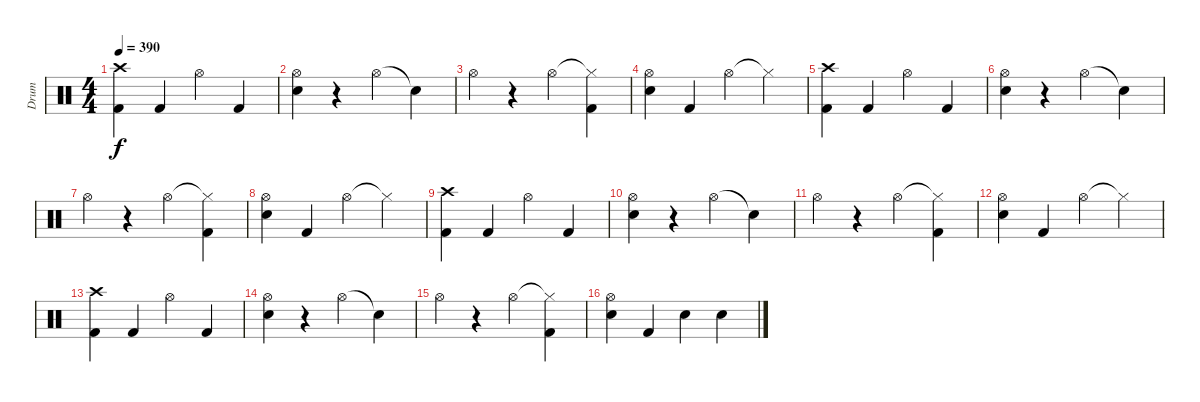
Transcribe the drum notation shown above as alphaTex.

\track ("Drum" "Drum") {instrument percussion}
\staff {score}
\articulation defaults
\ts (4 4)
\tempo 390
\clef neutral
\ks c
("Crash high (hit)" "Kick (hit) 2").4{dy f} "Kick (hit) 2".4 "Hi-Hat (open)".4 "Kick (hit) 2".4 |
("Hi-Hat (open)" "Electric Snare (hit)").4 r.4 "Hi-Hat (open)".4 "Snare (hit)"{t}.4 |
"Hi-Hat (open)".4 r.4 "Hi-Hat (open)".4 ("Hi-Hat (closed)"{t} "Kick (hit) 2").4 |
("Hi-Hat (open)" "Electric Snare (hit)").4 "Kick (hit) 2".4 "Hi-Hat (open)".4 "Hi-Hat (closed)"{t}.4 |
("Crash high (hit)" "Kick (hit) 2").4 "Kick (hit) 2".4 "Hi-Hat (open)".4 "Kick (hit) 2".4 |
("Hi-Hat (open)" "Electric Snare (hit)").4 r.4 "Hi-Hat (open)".4 "Snare (hit)"{t}.4 |
"Hi-Hat (open)".4 r.4 "Hi-Hat (open)".4 ("Hi-Hat (closed)"{t} "Kick (hit) 2").4 |
("Hi-Hat (open)" "Electric Snare (hit)").4 "Kick (hit) 2".4 "Hi-Hat (open)".4 "Hi-Hat (closed)"{t}.4 |
("Crash high (hit)" "Kick (hit) 2").4 "Kick (hit) 2".4 "Hi-Hat (open)".4 "Kick (hit) 2".4 |
("Hi-Hat (open)" "Electric Snare (hit)").4 r.4 "Hi-Hat (open)".4 "Snare (hit)"{t}.4 |
"Hi-Hat (open)".4 r.4 "Hi-Hat (open)".4 ("Hi-Hat (closed)"{t} "Kick (hit) 2").4 |
("Hi-Hat (open)" "Electric Snare (hit)").4 "Kick (hit) 2".4 "Hi-Hat (open)".4 "Hi-Hat (closed)"{t}.4 |
("Crash high (hit)" "Kick (hit) 2").4 "Kick (hit) 2".4 "Hi-Hat (open)".4 "Kick (hit) 2".4 |
("Hi-Hat (open)" "Electric Snare (hit)").4 r.4 "Hi-Hat (open)".4 "Snare (hit)"{t}.4 |
"Hi-Hat (open)".4 r.4 "Hi-Hat (open)".4 ("Hi-Hat (closed)"{t} "Kick (hit) 2").4 |
("Hi-Hat (open)" "Electric Snare (hit)").4 "Kick (hit) 2".4 "Electric Snare (hit)".4 "Electric Snare (hit)".4
